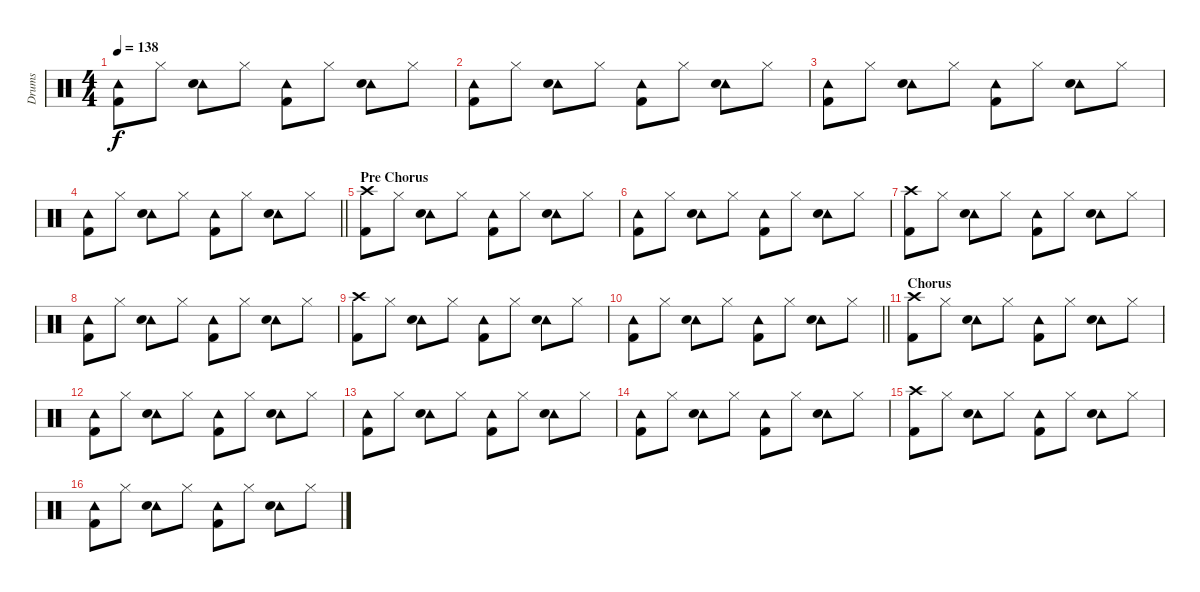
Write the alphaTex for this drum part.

\track ("Drums" "Drums") {instrument percussion}
\staff {score}
\articulation defaults
\ts (4 4)
\tempo 138
\clef neutral
\ks c
("Tambourine (hit)" "Kick (hit) 2").8{dy f} "Hi-Hat (closed)".8 ("Tambourine (hit)" "Snare (hit) 2").8 "Hi-Hat (closed)".8 ("Tambourine (hit)" "Kick (hit) 2").8 "Hi-Hat (closed)".8 ("Tambourine (hit)" "Snare (hit) 2").8 "Hi-Hat (closed)".8 |
("Tambourine (hit)" "Kick (hit) 2").8 "Hi-Hat (closed)".8 ("Tambourine (hit)" "Snare (hit) 2").8 "Hi-Hat (closed)".8 ("Tambourine (hit)" "Kick (hit) 2").8 "Hi-Hat (closed)".8 ("Tambourine (hit)" "Snare (hit) 2").8 "Hi-Hat (closed)".8 |
("Tambourine (hit)" "Kick (hit) 2").8 "Hi-Hat (closed)".8 ("Tambourine (hit)" "Snare (hit) 2").8 "Hi-Hat (closed)".8 ("Tambourine (hit)" "Kick (hit) 2").8 "Hi-Hat (closed)".8 ("Tambourine (hit)" "Snare (hit) 2").8 "Hi-Hat (closed)".8 |
\barLineRight lightlight
("Tambourine (hit)" "Kick (hit) 2").8 "Hi-Hat (closed)".8 ("Tambourine (hit)" "Snare (hit) 2").8 "Hi-Hat (closed)".8 ("Tambourine (hit)" "Kick (hit) 2").8 "Hi-Hat (closed)".8 ("Tambourine (hit)" "Snare (hit) 2").8 "Hi-Hat (closed)".8 |
\section ("" "Pre Chorus")
("Crash high (hit)" "Kick (hit) 2").8 "Hi-Hat (closed)".8 ("Tambourine (hit)" "Snare (hit) 2").8 "Hi-Hat (closed)".8 ("Tambourine (hit)" "Kick (hit) 2").8 "Hi-Hat (closed)".8 ("Tambourine (hit)" "Snare (hit) 2").8 "Hi-Hat (closed)".8 |
("Tambourine (hit)" "Kick (hit) 2").8 "Hi-Hat (closed)".8 ("Tambourine (hit)" "Snare (hit) 2").8 "Hi-Hat (closed)".8 ("Tambourine (hit)" "Kick (hit) 2").8 "Hi-Hat (closed)".8 ("Tambourine (hit)" "Snare (hit) 2").8 "Hi-Hat (closed)".8 |
("Crash high (hit)" "Kick (hit) 2").8 "Hi-Hat (closed)".8 ("Tambourine (hit)" "Snare (hit) 2").8 "Hi-Hat (closed)".8 ("Tambourine (hit)" "Kick (hit) 2").8 "Hi-Hat (closed)".8 ("Tambourine (hit)" "Snare (hit) 2").8 "Hi-Hat (closed)".8 |
("Tambourine (hit)" "Kick (hit) 2").8 "Hi-Hat (closed)".8 ("Tambourine (hit)" "Snare (hit) 2").8 "Hi-Hat (closed)".8 ("Tambourine (hit)" "Kick (hit) 2").8 "Hi-Hat (closed)".8 ("Tambourine (hit)" "Snare (hit) 2").8 "Hi-Hat (closed)".8 |
("Crash high (hit)" "Kick (hit) 2").8 "Hi-Hat (closed)".8 ("Tambourine (hit)" "Snare (hit) 2").8 "Hi-Hat (closed)".8 ("Tambourine (hit)" "Kick (hit) 2").8 "Hi-Hat (closed)".8 ("Tambourine (hit)" "Snare (hit) 2").8 "Hi-Hat (closed)".8 |
\barLineRight lightlight
("Tambourine (hit)" "Kick (hit) 2").8 "Hi-Hat (closed)".8 ("Tambourine (hit)" "Snare (hit) 2").8 "Hi-Hat (closed)".8 ("Tambourine (hit)" "Kick (hit) 2").8 "Hi-Hat (closed)".8 ("Tambourine (hit)" "Snare (hit) 2").8 "Hi-Hat (closed)".8 |
\section ("" "Chorus")
("Crash high (hit)" "Kick (hit) 2").8 "Hi-Hat (closed)".8 ("Tambourine (hit)" "Snare (hit) 2").8 "Hi-Hat (closed)".8 ("Tambourine (hit)" "Kick (hit) 2").8 "Hi-Hat (closed)".8 ("Tambourine (hit)" "Snare (hit) 2").8 "Hi-Hat (closed)".8 |
("Tambourine (hit)" "Kick (hit) 2").8 "Hi-Hat (closed)".8 ("Tambourine (hit)" "Snare (hit) 2").8 "Hi-Hat (closed)".8 ("Tambourine (hit)" "Kick (hit) 2").8 "Hi-Hat (closed)".8 ("Tambourine (hit)" "Snare (hit) 2").8 "Hi-Hat (closed)".8 |
("Tambourine (hit)" "Kick (hit) 2").8 "Hi-Hat (closed)".8 ("Tambourine (hit)" "Snare (hit) 2").8 "Hi-Hat (closed)".8 ("Tambourine (hit)" "Kick (hit) 2").8 "Hi-Hat (closed)".8 ("Tambourine (hit)" "Snare (hit) 2").8 "Hi-Hat (closed)".8 |
("Tambourine (hit)" "Kick (hit) 2").8 "Hi-Hat (closed)".8 ("Tambourine (hit)" "Snare (hit) 2").8 "Hi-Hat (closed)".8 ("Tambourine (hit)" "Kick (hit) 2").8 "Hi-Hat (closed)".8 ("Tambourine (hit)" "Snare (hit) 2").8 "Hi-Hat (closed)".8 |
("Crash high (hit)" "Kick (hit) 2").8 "Hi-Hat (closed)".8 ("Tambourine (hit)" "Snare (hit) 2").8 "Hi-Hat (closed)".8 ("Tambourine (hit)" "Kick (hit) 2").8 "Hi-Hat (closed)".8 ("Tambourine (hit)" "Snare (hit) 2").8 "Hi-Hat (closed)".8 |
("Tambourine (hit)" "Kick (hit) 2").8 "Hi-Hat (closed)".8 ("Tambourine (hit)" "Snare (hit) 2").8 "Hi-Hat (closed)".8 ("Tambourine (hit)" "Kick (hit) 2").8 "Hi-Hat (closed)".8 ("Tambourine (hit)" "Snare (hit) 2").8 "Hi-Hat (closed)".8
